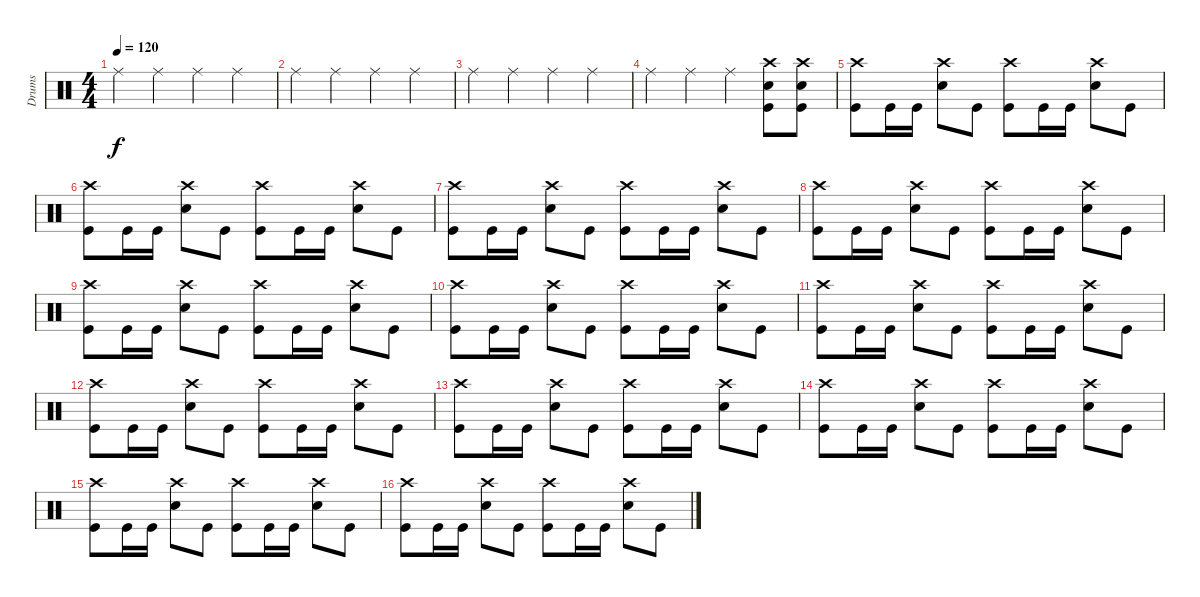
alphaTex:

\track ("Drums" "Drums") {instrument percussion}
\staff {score}
\articulation defaults
\ts (4 4)
\tempo 120
\clef neutral
\ks c "Ride (middle)".4{dy f} "Ride (middle)".4 "Ride (middle)".4 "Ride (middle)".4
|
"Ride (middle)".4 "Ride (middle)".4 "Ride (middle)".4 "Ride (middle)".4 |
"Ride (middle)".4 "Ride (middle)".4 "Ride (middle)".4 "Ride (middle)".4 |
"Ride (middle)".4 "Ride (middle)".4 "Ride (middle)".4 ("Crash high (hit)" "Snare (hit) 2" "Kick (hit)").8 ("Crash high (hit)" "Snare (hit) 2" "Kick (hit)").8 |
("Crash high (hit)" "Kick (hit)").8 "Kick (hit)".16 "Kick (hit)".16 ("Crash high (hit)" "Snare (hit) 2").8 "Kick (hit)".8 ("Crash high (hit)" "Kick (hit)").8 "Kick (hit)".16 "Kick (hit)".16 ("Crash high (hit)" "Snare (hit) 2").8 "Kick (hit)".8 |
("Crash high (hit)" "Kick (hit)").8 "Kick (hit)".16 "Kick (hit)".16 ("Crash high (hit)" "Snare (hit) 2").8 "Kick (hit)".8 ("Crash high (hit)" "Kick (hit)").8 "Kick (hit)".16 "Kick (hit)".16 ("Crash high (hit)" "Snare (hit) 2").8 "Kick (hit)".8 |
("Crash high (hit)" "Kick (hit)").8 "Kick (hit)".16 "Kick (hit)".16 ("Crash high (hit)" "Snare (hit) 2").8 "Kick (hit)".8 ("Crash high (hit)" "Kick (hit)").8 "Kick (hit)".16 "Kick (hit)".16 ("Crash high (hit)" "Snare (hit) 2").8 "Kick (hit)".8 |
("Crash high (hit)" "Kick (hit)").8 "Kick (hit)".16 "Kick (hit)".16 ("Crash high (hit)" "Snare (hit) 2").8 "Kick (hit)".8 ("Crash high (hit)" "Kick (hit)").8 "Kick (hit)".16 "Kick (hit)".16 ("Crash high (hit)" "Snare (hit) 2").8 "Kick (hit)".8 |
("Crash high (hit)" "Kick (hit)").8 "Kick (hit)".16 "Kick (hit)".16 ("Crash high (hit)" "Snare (hit) 2").8 "Kick (hit)".8 ("Crash high (hit)" "Kick (hit)").8 "Kick (hit)".16 "Kick (hit)".16 ("Crash high (hit)" "Snare (hit) 2").8 "Kick (hit)".8 |
("Crash high (hit)" "Kick (hit)").8 "Kick (hit)".16 "Kick (hit)".16 ("Crash high (hit)" "Snare (hit) 2").8 "Kick (hit)".8 ("Crash high (hit)" "Kick (hit)").8 "Kick (hit)".16 "Kick (hit)".16 ("Crash high (hit)" "Snare (hit) 2").8 "Kick (hit)".8 |
("Crash high (hit)" "Kick (hit)").8 "Kick (hit)".16 "Kick (hit)".16 ("Crash high (hit)" "Snare (hit) 2").8 "Kick (hit)".8 ("Crash high (hit)" "Kick (hit)").8 "Kick (hit)".16 "Kick (hit)".16 ("Crash high (hit)" "Snare (hit) 2").8 "Kick (hit)".8 |
("Crash high (hit)" "Kick (hit)").8 "Kick (hit)".16 "Kick (hit)".16 ("Crash high (hit)" "Snare (hit) 2").8 "Kick (hit)".8 ("Crash high (hit)" "Kick (hit)").8 "Kick (hit)".16 "Kick (hit)".16 ("Crash high (hit)" "Snare (hit) 2").8 "Kick (hit)".8 |
("Crash high (hit)" "Kick (hit)").8 "Kick (hit)".16 "Kick (hit)".16 ("Crash high (hit)" "Snare (hit) 2").8 "Kick (hit)".8 ("Crash high (hit)" "Kick (hit)").8 "Kick (hit)".16 "Kick (hit)".16 ("Crash high (hit)" "Snare (hit) 2").8 "Kick (hit)".8 |
("Crash high (hit)" "Kick (hit)").8 "Kick (hit)".16 "Kick (hit)".16 ("Crash high (hit)" "Snare (hit) 2").8 "Kick (hit)".8 ("Crash high (hit)" "Kick (hit)").8 "Kick (hit)".16 "Kick (hit)".16 ("Crash high (hit)" "Snare (hit) 2").8 "Kick (hit)".8 |
("Crash high (hit)" "Kick (hit)").8 "Kick (hit)".16 "Kick (hit)".16 ("Crash high (hit)" "Snare (hit) 2").8 "Kick (hit)".8 ("Crash high (hit)" "Kick (hit)").8 "Kick (hit)".16 "Kick (hit)".16 ("Crash high (hit)" "Snare (hit) 2").8 "Kick (hit)".8 |
("Crash high (hit)" "Kick (hit)").8 "Kick (hit)".16 "Kick (hit)".16 ("Crash high (hit)" "Snare (hit) 2").8 "Kick (hit)".8 ("Crash high (hit)" "Kick (hit)").8 "Kick (hit)".16 "Kick (hit)".16 ("Crash high (hit)" "Snare (hit) 2").8 "Kick (hit)".8
